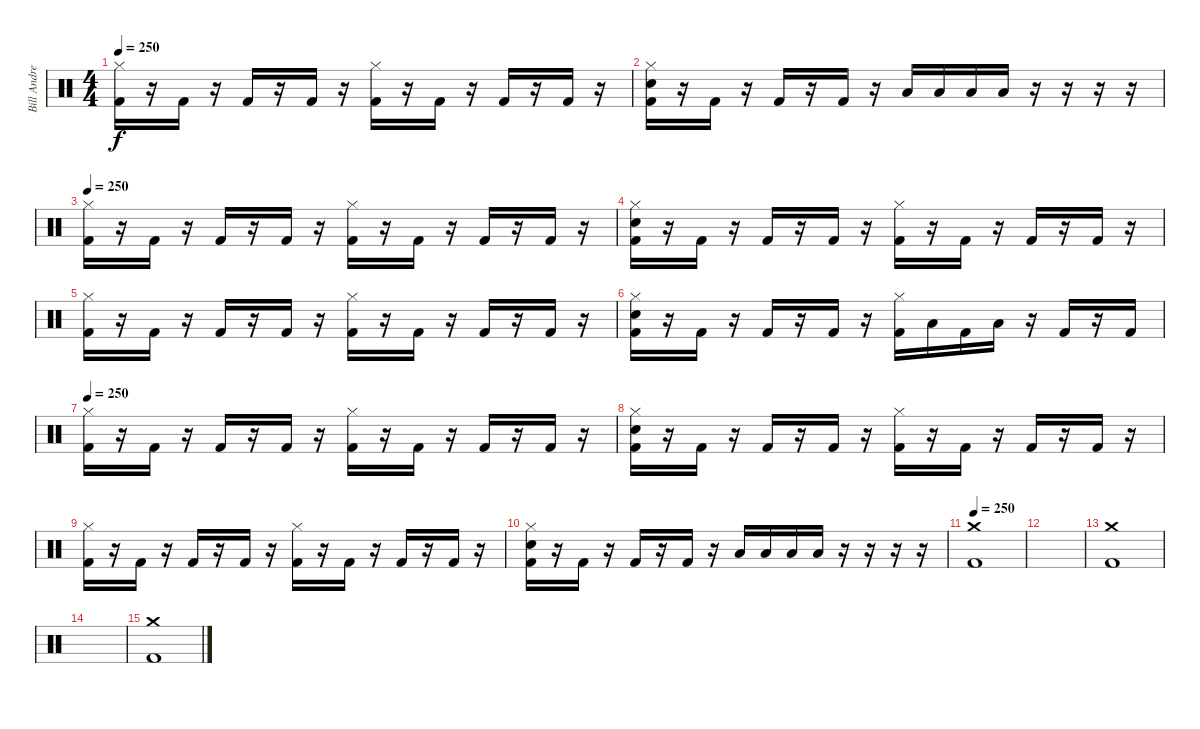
\track ("Bill Andrews" "Bill Andre") {instrument percussion}
\staff {score}
\articulation defaults
\ts (4 4)
\tempo 250
\clef neutral
\ks c
("Hi-Hat (closed)" "Kick (hit) 2").16{dy f} r.16 "Kick (hit) 2".16 r.16 "Kick (hit) 2".16 r.16 "Kick (hit) 2".16 r.16 ("Hi-Hat (closed)" "Kick (hit) 2").16 r.16 "Kick (hit) 2".16 r.16 "Kick (hit) 2".16 r.16 "Kick (hit) 2".16 r.16 |
("Hi-Hat (closed)" "Snare (hit) 2" "Kick (hit) 2").16 r.16 "Kick (hit) 2".16 r.16 "Kick (hit) 2".16 r.16 "Kick (hit) 2".16 r.16 "Low Floor Tom (hit)".16 "Low Floor Tom (hit)".16 "Low Floor Tom (hit)".16 "Low Floor Tom (hit)".16 r.16 r.16 r.16 r.16 |
\tempo 250
("Hi-Hat (closed)" "Kick (hit) 2").16 r.16 "Kick (hit) 2".16 r.16 "Kick (hit) 2".16 r.16 "Kick (hit) 2".16 r.16 ("Hi-Hat (closed)" "Kick (hit) 2").16 r.16 "Kick (hit) 2".16 r.16 "Kick (hit) 2".16 r.16 "Kick (hit) 2".16 r.16 |
("Hi-Hat (closed)" "Snare (hit) 2" "Kick (hit) 2").16 r.16 "Kick (hit) 2".16 r.16 "Kick (hit) 2".16 r.16 "Kick (hit) 2".16 r.16 ("Hi-Hat (closed)" "Kick (hit) 2").16 r.16 "Kick (hit) 2".16 r.16 "Kick (hit) 2".16 r.16 "Kick (hit) 2".16 r.16 |
("Hi-Hat (closed)" "Kick (hit) 2").16 r.16 "Kick (hit) 2".16 r.16 "Kick (hit) 2".16 r.16 "Kick (hit) 2".16 r.16 ("Hi-Hat (closed)" "Kick (hit) 2").16 r.16 "Kick (hit) 2".16 r.16 "Kick (hit) 2".16 r.16 "Kick (hit) 2".16 r.16 |
("Hi-Hat (closed)" "Snare (hit) 2" "Kick (hit) 2").16 r.16 "Kick (hit) 2".16 r.16 "Kick (hit) 2".16 r.16 "Kick (hit) 2".16 r.16 ("Hi-Hat (closed)" "Kick (hit) 2").16 "Low Floor Tom (hit)".16 "Kick (hit) 2".16 "Low Floor Tom (hit)".16 r.16 "Kick (hit) 2".16 r.16 "Kick (hit) 2".16 |
\tempo 250
("Hi-Hat (closed)" "Kick (hit) 2").16 r.16 "Kick (hit) 2".16 r.16 "Kick (hit) 2".16 r.16 "Kick (hit) 2".16 r.16 ("Hi-Hat (closed)" "Kick (hit) 2").16 r.16 "Kick (hit) 2".16 r.16 "Kick (hit) 2".16 r.16 "Kick (hit) 2".16 r.16 |
("Hi-Hat (closed)" "Snare (hit) 2" "Kick (hit) 2").16 r.16 "Kick (hit) 2".16 r.16 "Kick (hit) 2".16 r.16 "Kick (hit) 2".16 r.16 ("Hi-Hat (closed)" "Kick (hit) 2").16 r.16 "Kick (hit) 2".16 r.16 "Kick (hit) 2".16 r.16 "Kick (hit) 2".16 r.16 |
("Hi-Hat (closed)" "Kick (hit) 2").16 r.16 "Kick (hit) 2".16 r.16 "Kick (hit) 2".16 r.16 "Kick (hit) 2".16 r.16 ("Hi-Hat (closed)" "Kick (hit) 2").16 r.16 "Kick (hit) 2".16 r.16 "Kick (hit) 2".16 r.16 "Kick (hit) 2".16 r.16 |
("Hi-Hat (closed)" "Snare (hit) 2" "Kick (hit) 2").16 r.16 "Kick (hit) 2".16 r.16 "Kick (hit) 2".16 r.16 "Kick (hit) 2".16 r.16 "Low Floor Tom (hit)".16 "Low Floor Tom (hit)".16 "Low Floor Tom (hit)".16 "Low Floor Tom (hit)".16 r.16 r.16 r.16 r.16 |
\tempo 250
("Crash medium (hit)" "Kick (hit) 2").1 |
|
("Kick (hit) 2" "Crash medium (hit)").1 |
|
("Crash medium (hit)" "Kick (hit) 2").1
